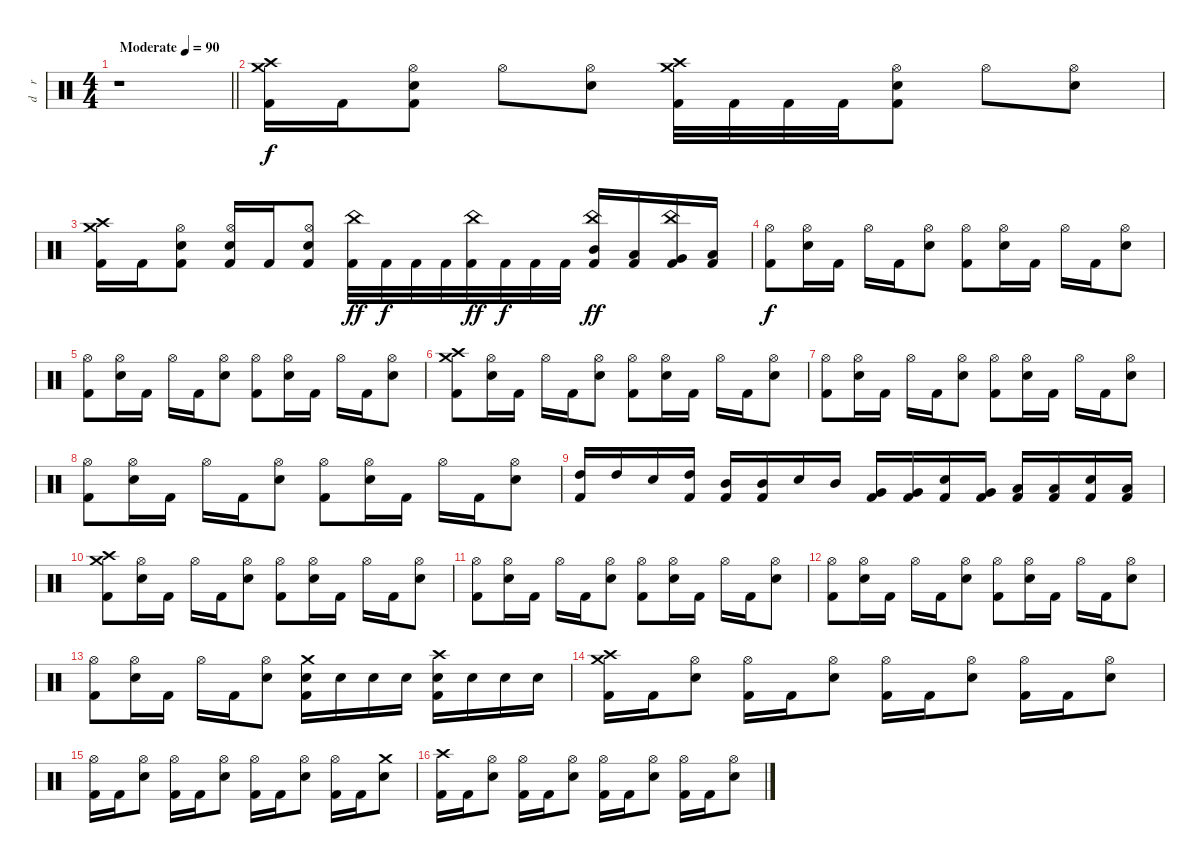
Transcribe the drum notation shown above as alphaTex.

\track ("d    r    u    m    s" "d    r    ") {instrument percussion}
\staff {score}
\articulation defaults
\ts (4 4)
\tempo (90 "Moderate")
\clef neutral
\barLineRight lightlight
\ks c
r.1{dy f} |
("Crash high (hit)" "Crash medium (hit)" "Kick (hit) 2").16 "Kick (hit) 2".16 ("Hi-Hat (open)" "Electric Snare (hit)" "Kick (hit) 2").8 "Hi-Hat (open)".8 ("Hi-Hat (open)" "Electric Snare (hit)").8 ("Crash high (hit)" "Crash medium (hit)" "Kick (hit) 2").32 "Kick (hit) 2".32 "Kick (hit) 2".32 "Kick (hit) 2".32 ("Hi-Hat (open)" "Electric Snare (hit)" "Kick (hit) 2").8 "Hi-Hat (open)".8 ("Hi-Hat (open)" "Electric Snare (hit)").8 |
("Crash high (hit)" "Crash medium (hit)" "Kick (hit) 2").16 "Kick (hit) 2".16 ("Hi-Hat (open)" "Electric Snare (hit)" "Kick (hit) 2").8 ("Hi-Hat (open)" "Electric Snare (hit)" "Kick (hit) 2").16 "Kick (hit) 2".16 ("Hi-Hat (open)" "Electric Snare (hit)" "Kick (hit) 2").8 ("China (hit)" "Kick (hit) 2").32{dy ff} "Kick (hit) 2".32{dy f} "Kick (hit) 2".32 "Kick (hit) 2".32 ("China (hit)" "Kick (hit) 2").32{dy ff} "Kick (hit) 2".32{dy f} "Kick (hit) 2".32 "Kick (hit) 2".32 ("China (hit)" "Mid Tom (hit)" "Kick (hit) 2").16{dy ff} ("Low Tom (hit)" "Kick (hit) 2").16 ("China (hit)" "Very Low Tom (hit)" "Kick (hit) 2").16 ("Low Floor Tom (hit)" "Kick (hit) 2").16 |
("Hi-Hat (open)" "Kick (hit) 2").8{dy f} ("Hi-Hat (open)" "Electric Snare (hit)").16 "Kick (hit) 2".16 "Hi-Hat (open)".16 "Kick (hit) 2".16 ("Hi-Hat (open)" "Electric Snare (hit)").8 ("Hi-Hat (open)" "Kick (hit) 2").8 ("Hi-Hat (open)" "Electric Snare (hit)").16 "Kick (hit) 2".16 "Hi-Hat (open)".16 "Kick (hit) 2".16 ("Hi-Hat (open)" "Electric Snare (hit)").8 |
("Hi-Hat (open)" "Kick (hit) 2").8 ("Hi-Hat (open)" "Electric Snare (hit)").16 "Kick (hit) 2".16 "Hi-Hat (open)".16 "Kick (hit) 2".16 ("Hi-Hat (open)" "Electric Snare (hit)").8 ("Hi-Hat (open)" "Kick (hit) 2").8 ("Hi-Hat (open)" "Electric Snare (hit)").16 "Kick (hit) 2".16 "Hi-Hat (open)".16 "Kick (hit) 2".16 ("Hi-Hat (open)" "Electric Snare (hit)").8 |
("Crash high (hit)" "Crash medium (hit)" "Kick (hit) 2").8 ("Hi-Hat (open)" "Electric Snare (hit)").16 "Kick (hit) 2".16 "Hi-Hat (open)".16 "Kick (hit) 2".16 ("Hi-Hat (open)" "Electric Snare (hit)").8 ("Hi-Hat (open)" "Kick (hit) 2").8 ("Hi-Hat (open)" "Electric Snare (hit)").16 "Kick (hit) 2".16 "Hi-Hat (open)".16 "Kick (hit) 2".16 ("Hi-Hat (open)" "Electric Snare (hit)").8 |
("Hi-Hat (open)" "Kick (hit) 2").8 ("Hi-Hat (open)" "Electric Snare (hit)").16 "Kick (hit) 2".16 "Hi-Hat (open)".16 "Kick (hit) 2".16 ("Hi-Hat (open)" "Electric Snare (hit)").8 ("Hi-Hat (open)" "Kick (hit) 2").8 ("Hi-Hat (open)" "Electric Snare (hit)").16 "Kick (hit) 2".16 "Hi-Hat (open)".16 "Kick (hit) 2".16 ("Hi-Hat (open)" "Electric Snare (hit)").8 |
("Hi-Hat (open)" "Kick (hit) 2").8 ("Hi-Hat (open)" "Electric Snare (hit)").16 "Kick (hit) 2".16 "Hi-Hat (open)".16 "Kick (hit) 2".16 ("Hi-Hat (open)" "Electric Snare (hit)").8 ("Hi-Hat (open)" "Kick (hit) 2").8 ("Hi-Hat (open)" "Electric Snare (hit)").16 "Kick (hit) 2".16 "Hi-Hat (open)".16 "Kick (hit) 2".16 ("Hi-Hat (open)" "Electric Snare (hit)").8 |
("High Tom (hit)" "Kick (hit) 2").16 "High Tom (hit)".16 "Electric Snare (hit)".16 ("High Tom (hit)" "Kick (hit) 2").16 ("Mid Tom (hit)" "Kick (hit) 2").16 ("Mid Tom (hit)" "Kick (hit) 2").16 "Electric Snare (hit)".16 "Mid Tom (hit)".16 ("Very Low Tom (hit)" "Kick (hit) 2").16 ("Very Low Tom (hit)" "Kick (hit) 2").16 ("Electric Snare (hit)" "Kick (hit) 2").16 ("Very Low Tom (hit)" "Kick (hit) 2").16 ("Low Floor Tom (hit)" "Kick (hit) 2").16 ("Low Floor Tom (hit)" "Kick (hit) 2").16 ("Electric Snare (hit)" "Kick (hit) 2").16 ("Low Floor Tom (hit)" "Kick (hit) 2").16 |
("Crash high (hit)" "Crash medium (hit)" "Kick (hit) 2").8 ("Hi-Hat (open)" "Electric Snare (hit)").16 "Kick (hit) 2".16 "Hi-Hat (open)".16 "Kick (hit) 2".16 ("Hi-Hat (open)" "Electric Snare (hit)").8 ("Hi-Hat (open)" "Kick (hit) 2").8 ("Hi-Hat (open)" "Electric Snare (hit)").16 "Kick (hit) 2".16 "Hi-Hat (open)".16 "Kick (hit) 2".16 ("Hi-Hat (open)" "Electric Snare (hit)").8 |
("Hi-Hat (open)" "Kick (hit) 2").8 ("Hi-Hat (open)" "Electric Snare (hit)").16 "Kick (hit) 2".16 "Hi-Hat (open)".16 "Kick (hit) 2".16 ("Hi-Hat (open)" "Electric Snare (hit)").8 ("Hi-Hat (open)" "Kick (hit) 2").8 ("Hi-Hat (open)" "Electric Snare (hit)").16 "Kick (hit) 2".16 "Hi-Hat (open)".16 "Kick (hit) 2".16 ("Hi-Hat (open)" "Electric Snare (hit)").8 |
("Hi-Hat (open)" "Kick (hit) 2").8 ("Hi-Hat (open)" "Electric Snare (hit)").16 "Kick (hit) 2".16 "Hi-Hat (open)".16 "Kick (hit) 2".16 ("Hi-Hat (open)" "Electric Snare (hit)").8 ("Hi-Hat (open)" "Kick (hit) 2").8 ("Hi-Hat (open)" "Electric Snare (hit)").16 "Kick (hit) 2".16 "Hi-Hat (open)".16 "Kick (hit) 2".16 ("Hi-Hat (open)" "Electric Snare (hit)").8 |
("Hi-Hat (open)" "Kick (hit) 2").8 ("Hi-Hat (open)" "Electric Snare (hit)").16 "Kick (hit) 2".16 "Hi-Hat (open)".16 "Kick (hit) 2".16 ("Hi-Hat (open)" "Electric Snare (hit)").8 ("Crash medium (hit)" "Electric Snare (hit)" "Kick (hit) 2").16 "Electric Snare (hit)".16 "Electric Snare (hit)".16 "Electric Snare (hit)".16 ("Crash high (hit)" "Electric Snare (hit)" "Kick (hit) 2").16 "Electric Snare (hit)".16 "Electric Snare (hit)".16 "Electric Snare (hit)".16 |
("Crash high (hit)" "Crash medium (hit)" "Kick (hit) 2").16 "Kick (hit) 2".16 ("Hi-Hat (open)" "Electric Snare (hit)").8 ("Hi-Hat (open)" "Kick (hit) 2").16 "Kick (hit) 2".16 ("Hi-Hat (open)" "Electric Snare (hit)").8 ("Hi-Hat (open)" "Kick (hit) 2").16 "Kick (hit) 2".16 ("Hi-Hat (open)" "Electric Snare (hit)").8 ("Hi-Hat (open)" "Kick (hit) 2").16 "Kick (hit) 2".16 ("Hi-Hat (open)" "Electric Snare (hit)").8 |
("Hi-Hat (open)" "Kick (hit) 2").16 "Kick (hit) 2".16 ("Hi-Hat (open)" "Electric Snare (hit)").8 ("Hi-Hat (open)" "Kick (hit) 2").16 "Kick (hit) 2".16 ("Hi-Hat (open)" "Electric Snare (hit)").8 ("Hi-Hat (open)" "Kick (hit) 2").16 "Kick (hit) 2".16 ("Hi-Hat (open)" "Electric Snare (hit)").8 ("Hi-Hat (open)" "Kick (hit) 2").16 "Kick (hit) 2".16 ("Crash medium (hit)" "Electric Snare (hit)").8 |
("Crash high (hit)" "Kick (hit) 2").16 "Kick (hit) 2".16 ("Hi-Hat (open)" "Electric Snare (hit)").8 ("Hi-Hat (open)" "Kick (hit) 2").16 "Kick (hit) 2".16 ("Hi-Hat (open)" "Electric Snare (hit)").8 ("Hi-Hat (open)" "Kick (hit) 2").16 "Kick (hit) 2".16 ("Hi-Hat (open)" "Electric Snare (hit)").8 ("Hi-Hat (open)" "Kick (hit) 2").16 "Kick (hit) 2".16 ("Hi-Hat (open)" "Electric Snare (hit)").8
